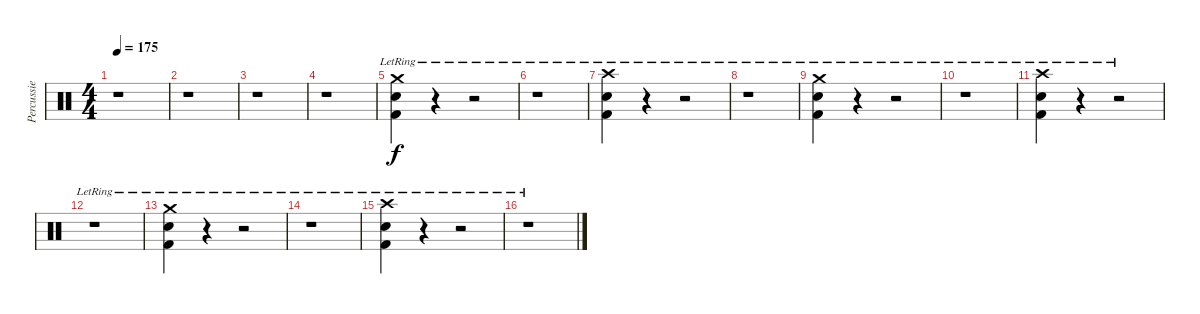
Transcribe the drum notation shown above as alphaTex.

\track ("Percussie" "Percussie") {instrument percussion}
\staff {score}
\articulation defaults
\ts (4 4)
\tempo 175
\clef neutral
\ks c
r.1{dy f} |
r.1 |
r.1 |
r.1 |
("Crash medium (hit)"{lr} "Snare (hit) 2" "Kick (hit) 2").4 r.4 r.2 |
r.1 |
("Crash high (hit)"{lr} "Snare (hit) 2" "Kick (hit) 2").4 r.4 r.2 |
r.1 |
("Crash medium (hit)"{lr} "Snare (hit) 2" "Kick (hit) 2").4 r.4 r.2 |
r.1 |
("Crash high (hit)"{lr} "Snare (hit) 2" "Kick (hit) 2").4 r.4 r.2 |
r.1 |
("Crash medium (hit)"{lr} "Snare (hit) 2" "Kick (hit) 2").4 r.4 r.2 |
r.1 |
("Crash high (hit)"{lr} "Snare (hit) 2" "Kick (hit) 2").4 r.4 r.2 |
r.1
